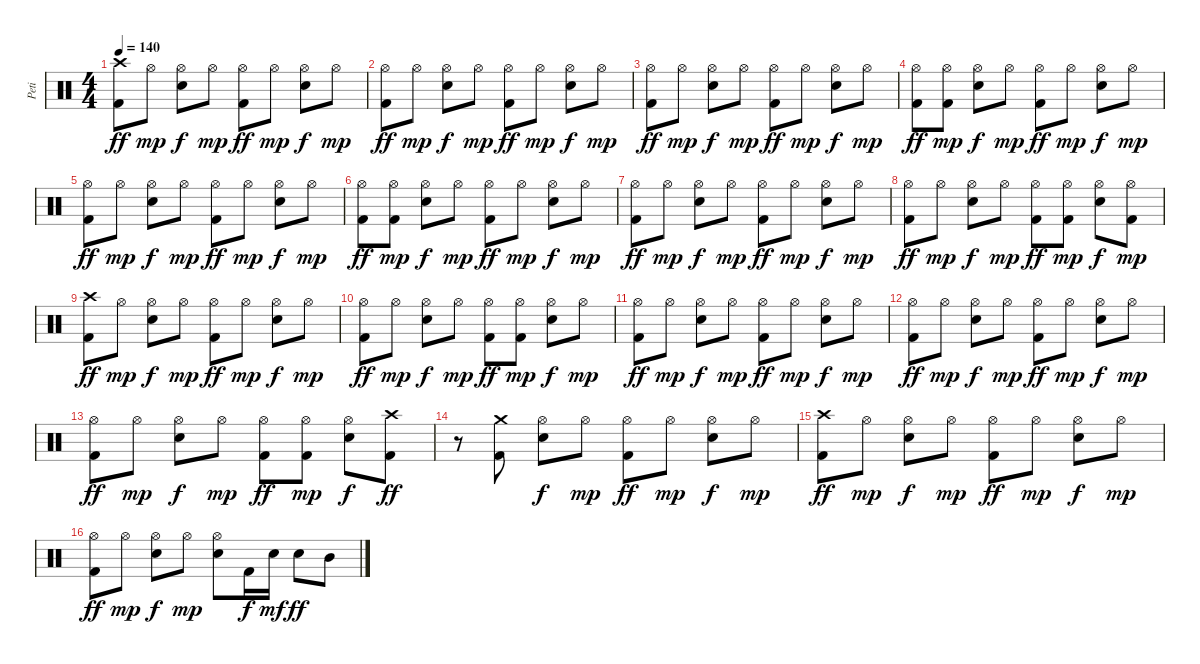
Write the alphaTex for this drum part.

\track ("Peti" "Peti") {instrument percussion}
\staff {score}
\articulation defaults
\ts (4 4)
\tempo 140
\clef neutral
\ks c
("Crash high (hit)" "Kick (hit) 2").8{dy ff} "Hi-Hat (open)".8{dy mp} ("Hi-Hat (open)" "Snare (hit) 2").8{dy f} "Hi-Hat (open)".8{dy mp} ("Hi-Hat (open)" "Kick (hit) 2").8{dy ff} "Hi-Hat (open)".8{dy mp} ("Hi-Hat (open)" "Snare (hit) 2").8{dy f} "Hi-Hat (open)".8{dy mp} |
("Hi-Hat (open)" "Kick (hit) 2").8{dy ff} "Hi-Hat (open)".8{dy mp} ("Hi-Hat (open)" "Snare (hit) 2").8{dy f} "Hi-Hat (open)".8{dy mp} ("Hi-Hat (open)" "Kick (hit) 2").8{dy ff} "Hi-Hat (open)".8{dy mp} ("Hi-Hat (open)" "Snare (hit) 2").8{dy f} "Hi-Hat (open)".8{dy mp} |
("Hi-Hat (open)" "Kick (hit) 2").8{dy ff} "Hi-Hat (open)".8{dy mp} ("Hi-Hat (open)" "Snare (hit) 2").8{dy f} "Hi-Hat (open)".8{dy mp} ("Hi-Hat (open)" "Kick (hit) 2").8{dy ff} "Hi-Hat (open)".8{dy mp} ("Hi-Hat (open)" "Snare (hit) 2").8{dy f} "Hi-Hat (open)".8{dy mp} |
("Hi-Hat (open)" "Kick (hit) 2").8{dy ff} ("Hi-Hat (open)" "Kick (hit) 2").8{dy mp} ("Hi-Hat (open)" "Snare (hit) 2").8{dy f} "Hi-Hat (open)".8{dy mp} ("Hi-Hat (open)" "Kick (hit) 2").8{dy ff} "Hi-Hat (open)".8{dy mp} ("Hi-Hat (open)" "Snare (hit) 2").8{dy f} "Hi-Hat (open)".8{dy mp} |
("Hi-Hat (open)" "Kick (hit) 2").8{dy ff} "Hi-Hat (open)".8{dy mp} ("Hi-Hat (open)" "Snare (hit) 2").8{dy f} "Hi-Hat (open)".8{dy mp} ("Hi-Hat (open)" "Kick (hit) 2").8{dy ff} "Hi-Hat (open)".8{dy mp} ("Hi-Hat (open)" "Snare (hit) 2").8{dy f} "Hi-Hat (open)".8{dy mp} |
("Hi-Hat (open)" "Kick (hit) 2").8{dy ff} ("Hi-Hat (open)" "Kick (hit) 2").8{dy mp} ("Hi-Hat (open)" "Snare (hit) 2").8{dy f} "Hi-Hat (open)".8{dy mp} ("Hi-Hat (open)" "Kick (hit) 2").8{dy ff} "Hi-Hat (open)".8{dy mp} ("Hi-Hat (open)" "Snare (hit) 2").8{dy f} "Hi-Hat (open)".8{dy mp} |
("Hi-Hat (open)" "Kick (hit) 2").8{dy ff} "Hi-Hat (open)".8{dy mp} ("Hi-Hat (open)" "Snare (hit) 2").8{dy f} "Hi-Hat (open)".8{dy mp} ("Hi-Hat (open)" "Kick (hit) 2").8{dy ff} "Hi-Hat (open)".8{dy mp} ("Hi-Hat (open)" "Snare (hit) 2").8{dy f} "Hi-Hat (open)".8{dy mp} |
("Hi-Hat (open)" "Kick (hit) 2").8{dy ff} "Hi-Hat (open)".8{dy mp} ("Hi-Hat (open)" "Snare (hit) 2").8{dy f} "Hi-Hat (open)".8{dy mp} ("Hi-Hat (open)" "Kick (hit) 2").8{dy ff} ("Hi-Hat (open)" "Kick (hit) 2").8{dy mp} ("Hi-Hat (open)" "Snare (hit) 2").8{dy f} ("Hi-Hat (open)" "Kick (hit) 2").8{dy mp} |
("Crash high (hit)" "Kick (hit) 2").8{dy ff} "Hi-Hat (open)".8{dy mp} ("Hi-Hat (open)" "Snare (hit) 2").8{dy f} "Hi-Hat (open)".8{dy mp} ("Hi-Hat (open)" "Kick (hit) 2").8{dy ff} "Hi-Hat (open)".8{dy mp} ("Hi-Hat (open)" "Snare (hit) 2").8{dy f} "Hi-Hat (open)".8{dy mp} |
("Hi-Hat (open)" "Kick (hit) 2").8{dy ff} "Hi-Hat (open)".8{dy mp} ("Hi-Hat (open)" "Snare (hit) 2").8{dy f} "Hi-Hat (open)".8{dy mp} ("Hi-Hat (open)" "Kick (hit) 2").8{dy ff} ("Hi-Hat (open)" "Kick (hit) 2").8{dy mp} ("Hi-Hat (open)" "Snare (hit) 2").8{dy f} "Hi-Hat (open)".8{dy mp} |
("Hi-Hat (open)" "Kick (hit) 2").8{dy ff} "Hi-Hat (open)".8{dy mp} ("Hi-Hat (open)" "Snare (hit) 2").8{dy f} "Hi-Hat (open)".8{dy mp} ("Hi-Hat (open)" "Kick (hit) 2").8{dy ff} "Hi-Hat (open)".8{dy mp} ("Hi-Hat (open)" "Snare (hit) 2").8{dy f} "Hi-Hat (open)".8{dy mp} |
("Hi-Hat (open)" "Kick (hit) 2").8{dy ff} "Hi-Hat (open)".8{dy mp} ("Hi-Hat (open)" "Snare (hit) 2").8{dy f} "Hi-Hat (open)".8{dy mp} ("Hi-Hat (open)" "Kick (hit) 2").8{dy ff} "Hi-Hat (open)".8{dy mp} ("Hi-Hat (open)" "Snare (hit) 2").8{dy f} "Hi-Hat (open)".8{dy mp} |
("Hi-Hat (open)" "Kick (hit) 2").8{dy ff} "Hi-Hat (open)".8{dy mp} ("Hi-Hat (open)" "Snare (hit) 2").8{dy f} "Hi-Hat (open)".8{dy mp} ("Hi-Hat (open)" "Kick (hit) 2").8{dy ff} ("Hi-Hat (open)" "Kick (hit) 2").8{dy mp} ("Hi-Hat (open)" "Snare (hit) 2").8{dy f} ("Crash high (hit)" "Kick (hit) 2").8{dy ff} |
r.8 ("Crash medium (hit)" "Kick (hit) 2").8 ("Hi-Hat (open)" "Snare (hit) 2").8{dy f} "Hi-Hat (open)".8{dy mp} ("Hi-Hat (open)" "Kick (hit) 2").8{dy ff} "Hi-Hat (open)".8{dy mp} ("Hi-Hat (open)" "Snare (hit) 2").8{dy f} "Hi-Hat (open)".8{dy mp} |
("Crash high (hit)" "Kick (hit) 2").8{dy ff} "Hi-Hat (open)".8{dy mp} ("Hi-Hat (open)" "Snare (hit) 2").8{dy f} "Hi-Hat (open)".8{dy mp} ("Hi-Hat (open)" "Kick (hit) 2").8{dy ff} "Hi-Hat (open)".8{dy mp} ("Hi-Hat (open)" "Snare (hit) 2").8{dy f} "Hi-Hat (open)".8{dy mp} |
("Hi-Hat (open)" "Kick (hit) 2").8{dy ff} "Hi-Hat (open)".8{dy mp} ("Hi-Hat (open)" "Snare (hit) 2").8{dy f} "Hi-Hat (open)".8{dy mp} ("Hi-Hat (open)" "Snare (hit) 2").8 "Kick (hit) 2".16{dy f} "Snare (hit) 2".16{dy mf} "Snare (hit) 2".8{dy ff} "Mid Tom (hit)".8
